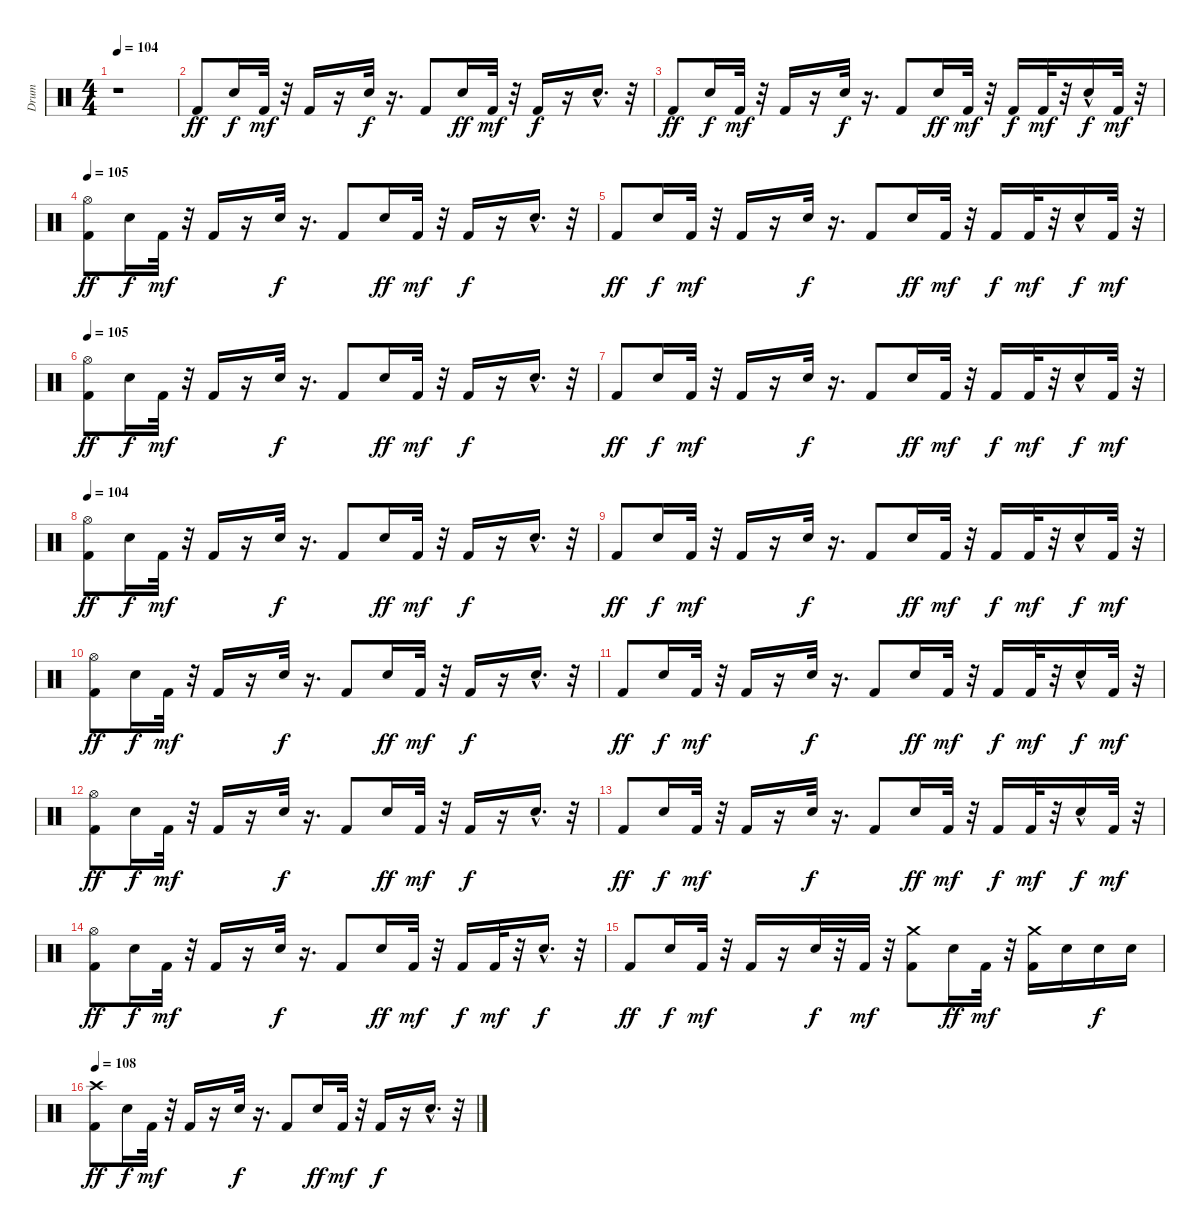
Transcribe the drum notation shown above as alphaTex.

\track ("Drum" "Drum") {instrument percussion}
\staff {score}
\articulation defaults
\ts (4 4)
\tempo 104
\clef neutral
\ks c
r.1{dy ff} |
"Kick (hit) 2".8 "Electric Snare (hit)".16{dy f} "Kick (hit) 2".32{dy mf} r.32 "Kick (hit) 2".16 r.16 "Electric Snare (hit)".32{dy f} r.16{d} "Kick (hit) 2".8 "Electric Snare (hit)".16{dy ff} "Kick (hit) 2".32{dy mf} r.32 "Kick (hit) 2".16{dy f} r.16 "Electric Snare (hit)"{hac}.16{d} r.32 |
"Kick (hit) 2".8{dy ff} "Electric Snare (hit)".16{dy f} "Kick (hit) 2".32{dy mf} r.32 "Kick (hit) 2".16 r.16 "Electric Snare (hit)".32{dy f} r.16{d} "Kick (hit) 2".8 "Electric Snare (hit)".16{dy ff} "Kick (hit) 2".32{dy mf} r.32 "Kick (hit) 2".16{dy f} "Kick (hit) 2".32{dy mf} r.32 "Electric Snare (hit)"{hac}.16{dy f} "Kick (hit) 2".32{dy mf} r.32 |
\tempo 105
("Hi-Hat (open)" "Kick (hit) 2").8{dy ff} "Electric Snare (hit)".16{dy f} "Kick (hit) 2".32{dy mf} r.32 "Kick (hit) 2".16 r.16 "Electric Snare (hit)".32{dy f} r.16{d} "Kick (hit) 2".8 "Electric Snare (hit)".16{dy ff} "Kick (hit) 2".32{dy mf} r.32 "Kick (hit) 2".16{dy f} r.16 "Electric Snare (hit)"{hac}.16{d} r.32 |
"Kick (hit) 2".8{dy ff} "Electric Snare (hit)".16{dy f} "Kick (hit) 2".32{dy mf} r.32 "Kick (hit) 2".16 r.16 "Electric Snare (hit)".32{dy f} r.16{d} "Kick (hit) 2".8 "Electric Snare (hit)".16{dy ff} "Kick (hit) 2".32{dy mf} r.32 "Kick (hit) 2".16{dy f} "Kick (hit) 2".32{dy mf} r.32 "Electric Snare (hit)"{hac}.16{dy f} "Kick (hit) 2".32{dy mf} r.32 |
\tempo 105
("Hi-Hat (open)" "Kick (hit) 2").8{dy ff} "Electric Snare (hit)".16{dy f} "Kick (hit) 2".32{dy mf} r.32 "Kick (hit) 2".16 r.16 "Electric Snare (hit)".32{dy f} r.16{d} "Kick (hit) 2".8 "Electric Snare (hit)".16{dy ff} "Kick (hit) 2".32{dy mf} r.32 "Kick (hit) 2".16{dy f} r.16 "Electric Snare (hit)"{hac}.16{d} r.32 |
"Kick (hit) 2".8{dy ff} "Electric Snare (hit)".16{dy f} "Kick (hit) 2".32{dy mf} r.32 "Kick (hit) 2".16 r.16 "Electric Snare (hit)".32{dy f} r.16{d} "Kick (hit) 2".8 "Electric Snare (hit)".16{dy ff} "Kick (hit) 2".32{dy mf} r.32 "Kick (hit) 2".16{dy f} "Kick (hit) 2".32{dy mf} r.32 "Electric Snare (hit)"{hac}.16{dy f} "Kick (hit) 2".32{dy mf} r.32 |
\tempo 104
("Hi-Hat (open)" "Kick (hit) 2").8{dy ff} "Electric Snare (hit)".16{dy f} "Kick (hit) 2".32{dy mf} r.32 "Kick (hit) 2".16 r.16 "Electric Snare (hit)".32{dy f} r.16{d} "Kick (hit) 2".8 "Electric Snare (hit)".16{dy ff} "Kick (hit) 2".32{dy mf} r.32 "Kick (hit) 2".16{dy f} r.16 "Electric Snare (hit)"{hac}.16{d} r.32 |
"Kick (hit) 2".8{dy ff} "Electric Snare (hit)".16{dy f} "Kick (hit) 2".32{dy mf} r.32 "Kick (hit) 2".16 r.16 "Electric Snare (hit)".32{dy f} r.16{d} "Kick (hit) 2".8 "Electric Snare (hit)".16{dy ff} "Kick (hit) 2".32{dy mf} r.32 "Kick (hit) 2".16{dy f} "Kick (hit) 2".32{dy mf} r.32 "Electric Snare (hit)"{hac}.16{dy f} "Kick (hit) 2".32{dy mf} r.32 |
("Hi-Hat (open)" "Kick (hit) 2").8{dy ff} "Electric Snare (hit)".16{dy f} "Kick (hit) 2".32{dy mf} r.32 "Kick (hit) 2".16 r.16 "Electric Snare (hit)".32{dy f} r.16{d} "Kick (hit) 2".8 "Electric Snare (hit)".16{dy ff} "Kick (hit) 2".32{dy mf} r.32 "Kick (hit) 2".16{dy f} r.16 "Electric Snare (hit)"{hac}.16{d} r.32 |
"Kick (hit) 2".8{dy ff} "Electric Snare (hit)".16{dy f} "Kick (hit) 2".32{dy mf} r.32 "Kick (hit) 2".16 r.16 "Electric Snare (hit)".32{dy f} r.16{d} "Kick (hit) 2".8 "Electric Snare (hit)".16{dy ff} "Kick (hit) 2".32{dy mf} r.32 "Kick (hit) 2".16{dy f} "Kick (hit) 2".32{dy mf} r.32 "Electric Snare (hit)"{hac}.16{dy f} "Kick (hit) 2".32{dy mf} r.32 |
("Hi-Hat (open)" "Kick (hit) 2").8{dy ff} "Electric Snare (hit)".16{dy f} "Kick (hit) 2".32{dy mf} r.32 "Kick (hit) 2".16 r.16 "Electric Snare (hit)".32{dy f} r.16{d} "Kick (hit) 2".8 "Electric Snare (hit)".16{dy ff} "Kick (hit) 2".32{dy mf} r.32 "Kick (hit) 2".16{dy f} r.16 "Electric Snare (hit)"{hac}.16{d} r.32 |
"Kick (hit) 2".8{dy ff} "Electric Snare (hit)".16{dy f} "Kick (hit) 2".32{dy mf} r.32 "Kick (hit) 2".16 r.16 "Electric Snare (hit)".32{dy f} r.16{d} "Kick (hit) 2".8 "Electric Snare (hit)".16{dy ff} "Kick (hit) 2".32{dy mf} r.32 "Kick (hit) 2".16{dy f} "Kick (hit) 2".32{dy mf} r.32 "Electric Snare (hit)"{hac}.16{dy f} "Kick (hit) 2".32{dy mf} r.32 |
("Hi-Hat (open)" "Kick (hit) 2").8{dy ff} "Electric Snare (hit)".16{dy f} "Kick (hit) 2".32{dy mf} r.32 "Kick (hit) 2".16 r.16 "Electric Snare (hit)".32{dy f} r.16{d} "Kick (hit) 2".8 "Electric Snare (hit)".16{dy ff} "Kick (hit) 2".32{dy mf} r.32 "Kick (hit) 2".16{dy f} "Kick (hit) 2".32{dy mf} r.32 "Electric Snare (hit)"{hac}.16{d dy f} r.32 |
"Kick (hit) 2".8{dy ff} "Electric Snare (hit)".16{dy f} "Kick (hit) 2".32{dy mf} r.32 "Kick (hit) 2".16 r.16 "Electric Snare (hit)".32{dy f} r.32 "Kick (hit) 2".32{dy mf} r.32 ("Crash medium (hit)" "Kick (hit) 2").8 "Electric Snare (hit)".16{dy ff} "Kick (hit) 2".32{dy mf} r.32 ("Crash medium (hit)" "Kick (hit) 2").16 "Electric Snare (hit)".16 "Electric Snare (hit)".16{dy f} "Electric Snare (hit)".16 |
\tempo 108
("Crash high (hit)" "Kick (hit) 2").8{dy ff} "Electric Snare (hit)".16{dy f} "Kick (hit) 2".32{dy mf} r.32 "Kick (hit) 2".16 r.16 "Electric Snare (hit)".32{dy f} r.16{d} "Kick (hit) 2".8 "Electric Snare (hit)".16{dy ff} "Kick (hit) 2".32{dy mf} r.32 "Kick (hit) 2".16{dy f} r.16 "Electric Snare (hit)"{hac}.16{d} r.32
